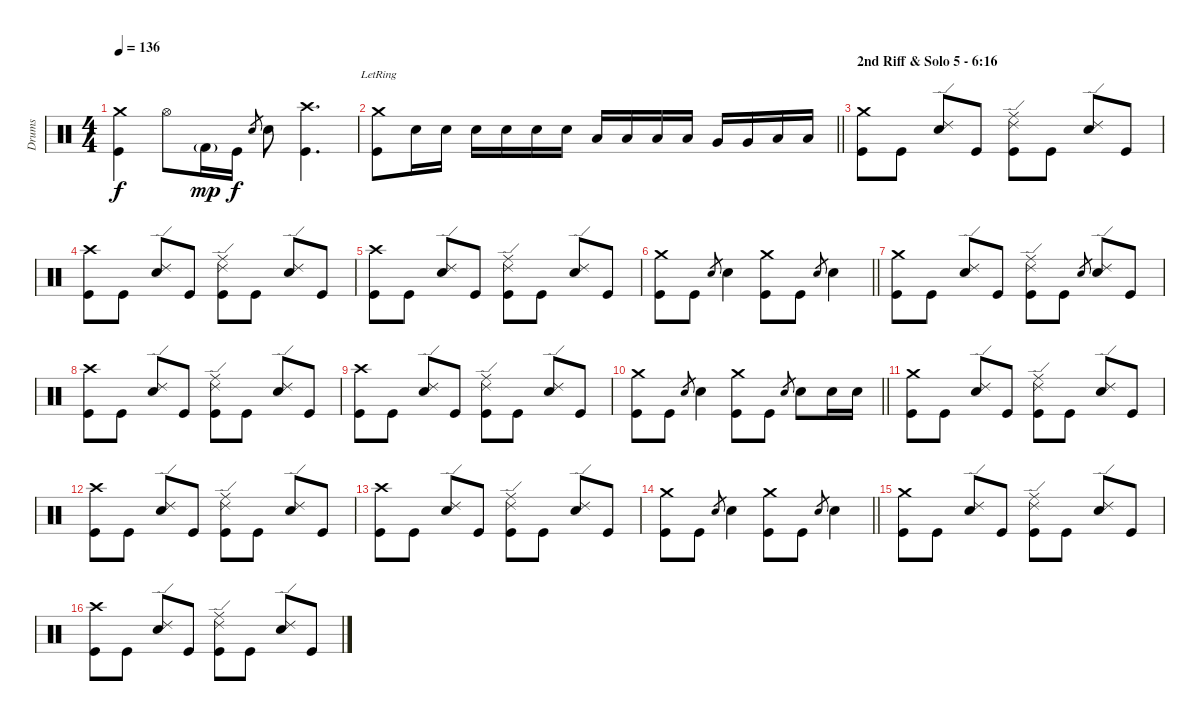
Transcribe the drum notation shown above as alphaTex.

\track ("Drums" "Drums") {instrument percussion}
\staff {score}
\articulation defaults
\ts (4 4)
\tempo 136
\clef neutral
\ks c
("Crash medium (hit)" "Kick (hit)").4{dy f} "Hi-Hat (open)".8 "Kick (hit) 2"{g}.16{dy mp} "Kick (hit)".16{dy f} "Snare (hit) 2".8{gr} "Snare (hit) 2".8 ("Crash high (hit)" "Kick (hit)").4{d} |
\barLineRight lightlight
("Crash medium (hit)"{lr} "Kick (hit)").8 "Snare (hit) 2".16 "Snare (hit) 2".16 "Snare (hit) 2".16 "Snare (hit) 2".16 "Snare (hit) 2".16 "Snare (hit) 2".16 "Low Tom (hit)".16 "Low Tom (hit)".16 "Low Tom (hit)".16 "Low Tom (hit)".16 "Very Low Tom (hit)".16 "Very Low Tom (hit)".16 "Low Floor Tom (hit)".16 "Low Floor Tom (hit)".16 |
\section ("" "2nd Riff & Solo 5 - 6:16")
("Crash medium (hit)" "Kick (hit)").8 "Kick (hit)".8 ("Ride (edge) 2" "Snare (hit) 2").8 "Kick (hit)".8 ("Ride (edge) 2" "Ride (middle)" "Kick (hit)").8 "Kick (hit)".8 ("Ride (edge) 2" "Snare (hit) 2").8 "Kick (hit)".8 |
("Crash high (hit)" "Kick (hit)").8 "Kick (hit)".8 ("Ride (edge) 2" "Snare (hit) 2").8 "Kick (hit)".8 ("Ride (edge) 2" "Ride (middle)" "Kick (hit)").8 "Kick (hit)".8 ("Ride (edge) 2" "Snare (hit) 2").8 "Kick (hit)".8 |
("Crash high (hit)" "Kick (hit)").8 "Kick (hit)".8 ("Ride (edge) 2" "Snare (hit) 2").8 "Kick (hit)".8 ("Ride (edge) 2" "Ride (middle)" "Kick (hit)").8 "Kick (hit)".8 ("Ride (edge) 2" "Snare (hit) 2").8 "Kick (hit)".8 |
\barLineRight lightlight
("Crash medium (hit)" "Kick (hit)").8 "Kick (hit)".8 "Snare (hit) 2".8{gr} "Snare (hit) 2".4 ("Crash medium (hit)" "Kick (hit)").8 "Kick (hit)".8 "Snare (hit) 2".8{gr} "Snare (hit) 2".4 |
("Crash medium (hit)" "Kick (hit)").8 "Kick (hit)".8 ("Ride (edge) 2" "Snare (hit) 2").8 "Kick (hit)".8 ("Ride (edge) 2" "Ride (middle)" "Kick (hit)").8 "Kick (hit)".8 "Snare (hit) 2".8{gr} ("Ride (edge) 2" "Snare (hit) 2").8 "Kick (hit)".8 |
("Crash high (hit)" "Kick (hit)").8 "Kick (hit)".8 ("Ride (edge) 2" "Snare (hit) 2").8 "Kick (hit)".8 ("Ride (edge) 2" "Ride (middle)" "Kick (hit)").8 "Kick (hit)".8 ("Ride (edge) 2" "Snare (hit) 2").8 "Kick (hit)".8 |
("Crash high (hit)" "Kick (hit)").8 "Kick (hit)".8 ("Ride (edge) 2" "Snare (hit) 2").8 "Kick (hit)".8 ("Ride (edge) 2" "Ride (middle)" "Kick (hit)").8 "Kick (hit)".8 ("Ride (edge) 2" "Snare (hit) 2").8 "Kick (hit)".8 |
\barLineRight lightlight
("Crash medium (hit)" "Kick (hit)").8 "Kick (hit)".8 "Snare (hit) 2".8{gr} "Snare (hit) 2".4 ("Crash medium (hit)" "Kick (hit)").8 "Kick (hit)".8 "Snare (hit) 2".8{gr} "Snare (hit) 2".8 "Snare (hit) 2".16 "Snare (hit) 2".16 |
("Crash medium (hit)" "Kick (hit)").8 "Kick (hit)".8 ("Ride (edge) 2" "Snare (hit) 2").8 "Kick (hit)".8 ("Ride (edge) 2" "Ride (middle)" "Kick (hit)").8 "Kick (hit)".8 ("Ride (edge) 2" "Snare (hit) 2").8 "Kick (hit)".8 |
("Crash high (hit)" "Kick (hit)").8 "Kick (hit)".8 ("Ride (edge) 2" "Snare (hit) 2").8 "Kick (hit)".8 ("Ride (edge) 2" "Ride (middle)" "Kick (hit)").8 "Kick (hit)".8 ("Ride (edge) 2" "Snare (hit) 2").8 "Kick (hit)".8 |
("Crash high (hit)" "Kick (hit)").8 "Kick (hit)".8 ("Ride (edge) 2" "Snare (hit) 2").8 "Kick (hit)".8 ("Ride (edge) 2" "Ride (middle)" "Kick (hit)").8 "Kick (hit)".8 ("Ride (edge) 2" "Snare (hit) 2").8 "Kick (hit)".8 |
\barLineRight lightlight
("Crash medium (hit)" "Kick (hit)").8 "Kick (hit)".8 "Snare (hit) 2".8{gr} "Snare (hit) 2".4 ("Crash medium (hit)" "Kick (hit)").8 "Kick (hit)".8 "Snare (hit) 2".8{gr} "Snare (hit) 2".4 |
("Crash medium (hit)" "Kick (hit)").8 "Kick (hit)".8 ("Ride (edge) 2" "Snare (hit) 2").8 "Kick (hit)".8 ("Ride (edge) 2" "Ride (middle)" "Kick (hit)").8 "Kick (hit)".8 ("Ride (edge) 2" "Snare (hit) 2").8 "Kick (hit)".8 |
("Crash high (hit)" "Kick (hit)").8 "Kick (hit)".8 ("Ride (edge) 2" "Snare (hit) 2").8 "Kick (hit)".8 ("Ride (edge) 2" "Ride (middle)" "Kick (hit)").8 "Kick (hit)".8 ("Ride (edge) 2" "Snare (hit) 2").8 "Kick (hit)".8
